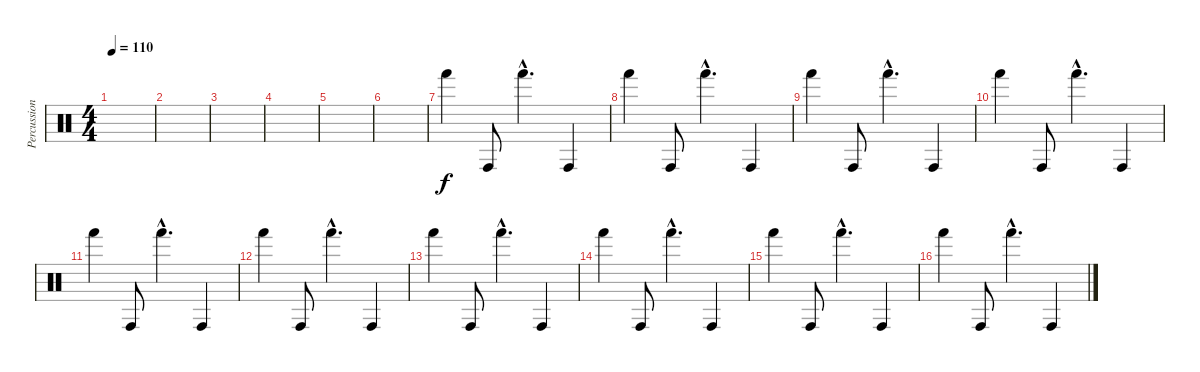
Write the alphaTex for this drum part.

\track ("Percussion" "Percussion") {instrument percussion}
\staff {score}
\articulation defaults
\ts (4 4)
\tempo 110
\clef neutral
\ks c
|
|
|
|
|
|
"Hand (hit)".4 "Conga high (hit)".8 "Hand (hit)"{hac}.4{d} "Conga high (hit)".4 |
"Hand (hit)".4 "Conga high (hit)".8 "Hand (hit)"{hac}.4{d} "Conga high (hit)".4 |
"Hand (hit)".4 "Conga high (hit)".8 "Hand (hit)"{hac}.4{d} "Conga high (hit)".4 |
"Hand (hit)".4 "Conga high (hit)".8 "Hand (hit)"{hac}.4{d} "Conga high (hit)".4 |
"Hand (hit)".4 "Conga high (hit)".8 "Hand (hit)"{hac}.4{d} "Conga high (hit)".4 |
"Hand (hit)".4 "Conga high (hit)".8 "Hand (hit)"{hac}.4{d} "Conga high (hit)".4 |
"Hand (hit)".4 "Conga high (hit)".8 "Hand (hit)"{hac}.4{d} "Conga high (hit)".4 |
"Hand (hit)".4 "Conga high (hit)".8 "Hand (hit)"{hac}.4{d} "Conga high (hit)".4 |
"Hand (hit)".4 "Conga high (hit)".8 "Hand (hit)"{hac}.4{d} "Conga high (hit)".4 |
"Hand (hit)".4 "Conga high (hit)".8 "Hand (hit)"{hac}.4{d} "Conga high (hit)".4
